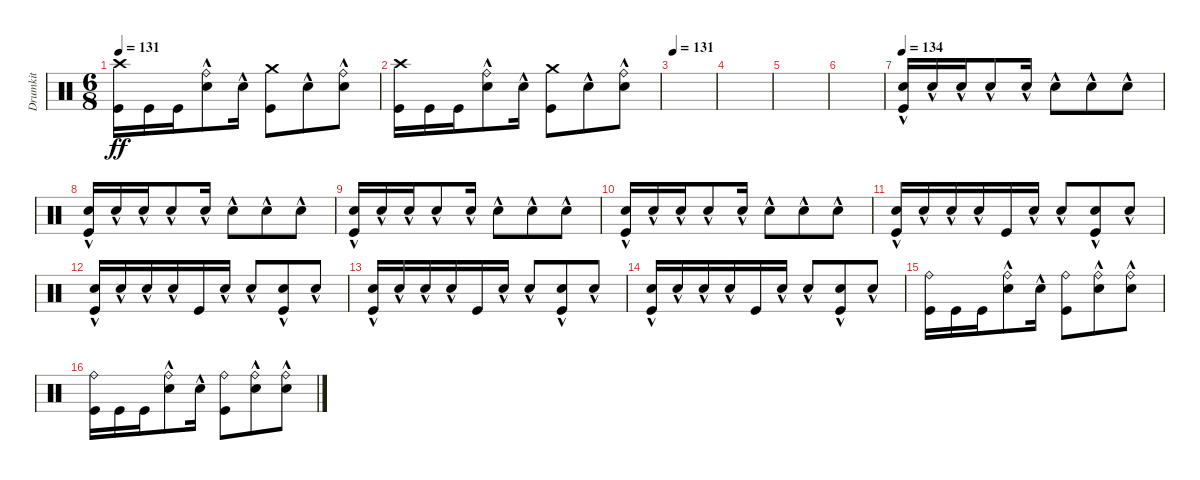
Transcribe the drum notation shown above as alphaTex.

\track ("Drumkit" "Drumkit") {instrument percussion}
\staff {score}
\articulation defaults
\ts (6 8)
\tempo 131
\clef neutral
\ks aminor
("Kick (hit)" "Crash high (hit)").16{dy ff} "Kick (hit)".16 "Kick (hit)".16 ("Snare (hit) 2"{hac} "Ride (bell)").8 "Snare (hit) 2"{hac}.16 ("Kick (hit)" "Crash medium (hit)").8 "Snare (hit) 2"{hac}.8 ("Snare (hit) 2"{hac} "Ride (bell)").8 |
("Kick (hit)" "Crash high (hit)").16 "Kick (hit)".16 "Kick (hit)".16 ("Snare (hit) 2"{hac} "Ride (bell)").8 "Snare (hit) 2"{hac}.16 ("Kick (hit)" "Crash medium (hit)").8 "Snare (hit) 2"{hac}.8 ("Snare (hit) 2"{hac} "Ride (bell)").8 |
\tempo 131
|
|
|
|
\tempo 134
("Snare (hit) 2"{hac} "Kick (hit)").16 "Snare (hit) 2"{hac}.16 "Snare (hit) 2"{hac}.16 "Snare (hit) 2"{hac}.8 "Snare (hit) 2"{hac}.16 "Snare (hit) 2"{hac}.8 "Snare (hit) 2"{hac}.8 "Snare (hit) 2"{hac}.8 |
("Snare (hit) 2"{hac} "Kick (hit)").16 "Snare (hit) 2"{hac}.16 "Snare (hit) 2"{hac}.16 "Snare (hit) 2"{hac}.8 "Snare (hit) 2"{hac}.16 "Snare (hit) 2"{hac}.8 "Snare (hit) 2"{hac}.8 "Snare (hit) 2"{hac}.8 |
("Snare (hit) 2"{hac} "Kick (hit)").16 "Snare (hit) 2"{hac}.16 "Snare (hit) 2"{hac}.16 "Snare (hit) 2"{hac}.8 "Snare (hit) 2"{hac}.16 "Snare (hit) 2"{hac}.8 "Snare (hit) 2"{hac}.8 "Snare (hit) 2"{hac}.8 |
("Snare (hit) 2"{hac} "Kick (hit)").16 "Snare (hit) 2"{hac}.16 "Snare (hit) 2"{hac}.16 "Snare (hit) 2"{hac}.8 "Snare (hit) 2"{hac}.16 "Snare (hit) 2"{hac}.8 "Snare (hit) 2"{hac}.8 "Snare (hit) 2"{hac}.8 |
("Snare (hit) 2"{hac} "Kick (hit)").16 "Snare (hit) 2"{hac}.16 "Snare (hit) 2"{hac}.16 "Snare (hit) 2"{hac}.16 "Kick (hit)".16 "Snare (hit) 2"{hac}.16 "Snare (hit) 2"{hac}.8 ("Snare (hit) 2"{hac} "Kick (hit)").8 "Snare (hit) 2"{hac}.8 |
("Snare (hit) 2"{hac} "Kick (hit)").16 "Snare (hit) 2"{hac}.16 "Snare (hit) 2"{hac}.16 "Snare (hit) 2"{hac}.16 "Kick (hit)".16 "Snare (hit) 2"{hac}.16 "Snare (hit) 2"{hac}.8 ("Snare (hit) 2"{hac} "Kick (hit)").8 "Snare (hit) 2"{hac}.8 |
("Snare (hit) 2"{hac} "Kick (hit)").16 "Snare (hit) 2"{hac}.16 "Snare (hit) 2"{hac}.16 "Snare (hit) 2"{hac}.16 "Kick (hit)".16 "Snare (hit) 2"{hac}.16 "Snare (hit) 2"{hac}.8 ("Snare (hit) 2"{hac} "Kick (hit)").8 "Snare (hit) 2"{hac}.8 |
("Snare (hit) 2"{hac} "Kick (hit)").16 "Snare (hit) 2"{hac}.16 "Snare (hit) 2"{hac}.16 "Snare (hit) 2"{hac}.16 "Kick (hit)".16 "Snare (hit) 2"{hac}.16 "Snare (hit) 2"{hac}.8 ("Snare (hit) 2"{hac} "Kick (hit)").8 "Snare (hit) 2"{hac}.8 |
("Kick (hit)" "Ride (bell)").16 "Kick (hit)".16 "Kick (hit)".16 ("Snare (hit) 2"{hac} "Ride (bell)").8 "Snare (hit) 2"{hac}.16 ("Kick (hit)" "Ride (bell)").8 ("Snare (hit) 2"{hac} "Ride (bell)").8 ("Snare (hit) 2"{hac} "Ride (bell)").8 |
("Kick (hit)" "Ride (bell)").16 "Kick (hit)".16 "Kick (hit)".16 ("Snare (hit) 2"{hac} "Ride (bell)").8 "Snare (hit) 2"{hac}.16 ("Kick (hit)" "Ride (bell)").8 ("Snare (hit) 2"{hac} "Ride (bell)").8 ("Snare (hit) 2"{hac} "Ride (bell)").8
